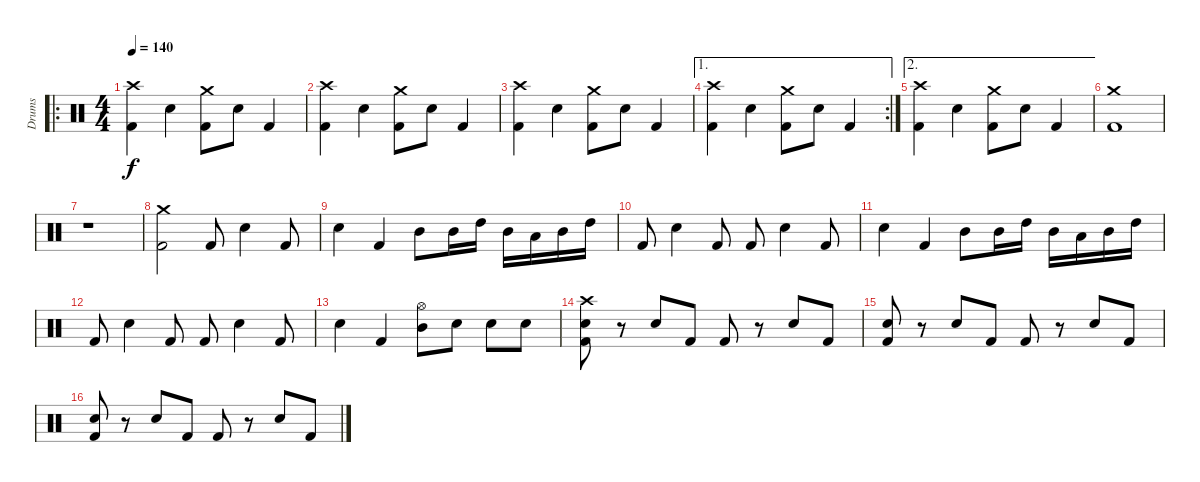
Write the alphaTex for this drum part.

\track ("Drums" "Drums") {instrument percussion}
\staff {score}
\articulation defaults
\ro
\ts (4 4)
\tempo 140
\clef neutral
\ks c
("Crash high (hit)" "Kick (hit) 2").4{dy f} "Snare (hit) 2".4 ("Crash medium (hit)" "Kick (hit) 2").8 "Snare (hit) 2".8 "Kick (hit) 2".4 |
("Crash high (hit)" "Kick (hit) 2").4 "Snare (hit) 2".4 ("Crash medium (hit)" "Kick (hit) 2").8 "Snare (hit) 2".8 "Kick (hit) 2".4 |
("Crash high (hit)" "Kick (hit) 2").4 "Snare (hit) 2".4 ("Crash medium (hit)" "Kick (hit) 2").8 "Snare (hit) 2".8 "Kick (hit) 2".4 |
\ae 1
\rc 2
("Crash high (hit)" "Kick (hit) 2").4 "Snare (hit) 2".4 ("Crash medium (hit)" "Kick (hit) 2").8 "Snare (hit) 2".8 "Kick (hit) 2".4 |
\ae 2
("Crash high (hit)" "Kick (hit) 2").4 "Snare (hit) 2".4 ("Crash medium (hit)" "Kick (hit) 2").8 "Snare (hit) 2".8 "Kick (hit) 2".4 |
("Kick (hit) 2" "Crash medium (hit)").1 |
r.1 |
("Kick (hit) 2" "Crash medium (hit)").2 "Kick (hit) 2".8 "Snare (hit) 2".4 "Kick (hit) 2".8 |
"Snare (hit) 2".4 "Kick (hit) 2".4 "Mid Tom (hit)".8 "Mid Tom (hit)".16 "High Tom (hit)".16 "Mid Tom (hit)".16 "Low Tom (hit)".16 "Mid Tom (hit)".16 "High Tom (hit)".16 |
"Kick (hit) 2".8 "Snare (hit) 2".4 "Kick (hit) 2".8 "Kick (hit) 2".8 "Snare (hit) 2".4 "Kick (hit) 2".8 |
"Snare (hit) 2".4 "Kick (hit) 2".4 "Mid Tom (hit)".8 "Mid Tom (hit)".16 "High Tom (hit)".16 "Mid Tom (hit)".16 "Low Tom (hit)".16 "Mid Tom (hit)".16 "High Tom (hit)".16 |
"Kick (hit) 2".8 "Snare (hit) 2".4 "Kick (hit) 2".8 "Kick (hit) 2".8 "Snare (hit) 2".4 "Kick (hit) 2".8 |
"Snare (hit) 2".4 "Kick (hit) 2".4 ("Hi-Hat (open)" "Mid Tom (hit)").8 "Snare (hit) 2".8 "Snare (hit) 2".8 "Snare (hit) 2".8 |
("Crash high (hit)" "Snare (hit) 2" "Kick (hit) 2").8 r.8 "Snare (hit) 2".8 "Kick (hit) 2".8 "Kick (hit) 2".8 r.8 "Snare (hit) 2".8 "Kick (hit) 2".8 |
("Snare (hit) 2" "Kick (hit) 2").8 r.8 "Snare (hit) 2".8 "Kick (hit) 2".8 "Kick (hit) 2".8 r.8 "Snare (hit) 2".8 "Kick (hit) 2".8 |
("Snare (hit) 2" "Kick (hit) 2").8 r.8 "Snare (hit) 2".8 "Kick (hit) 2".8 "Kick (hit) 2".8 r.8 "Snare (hit) 2".8 "Kick (hit) 2".8
